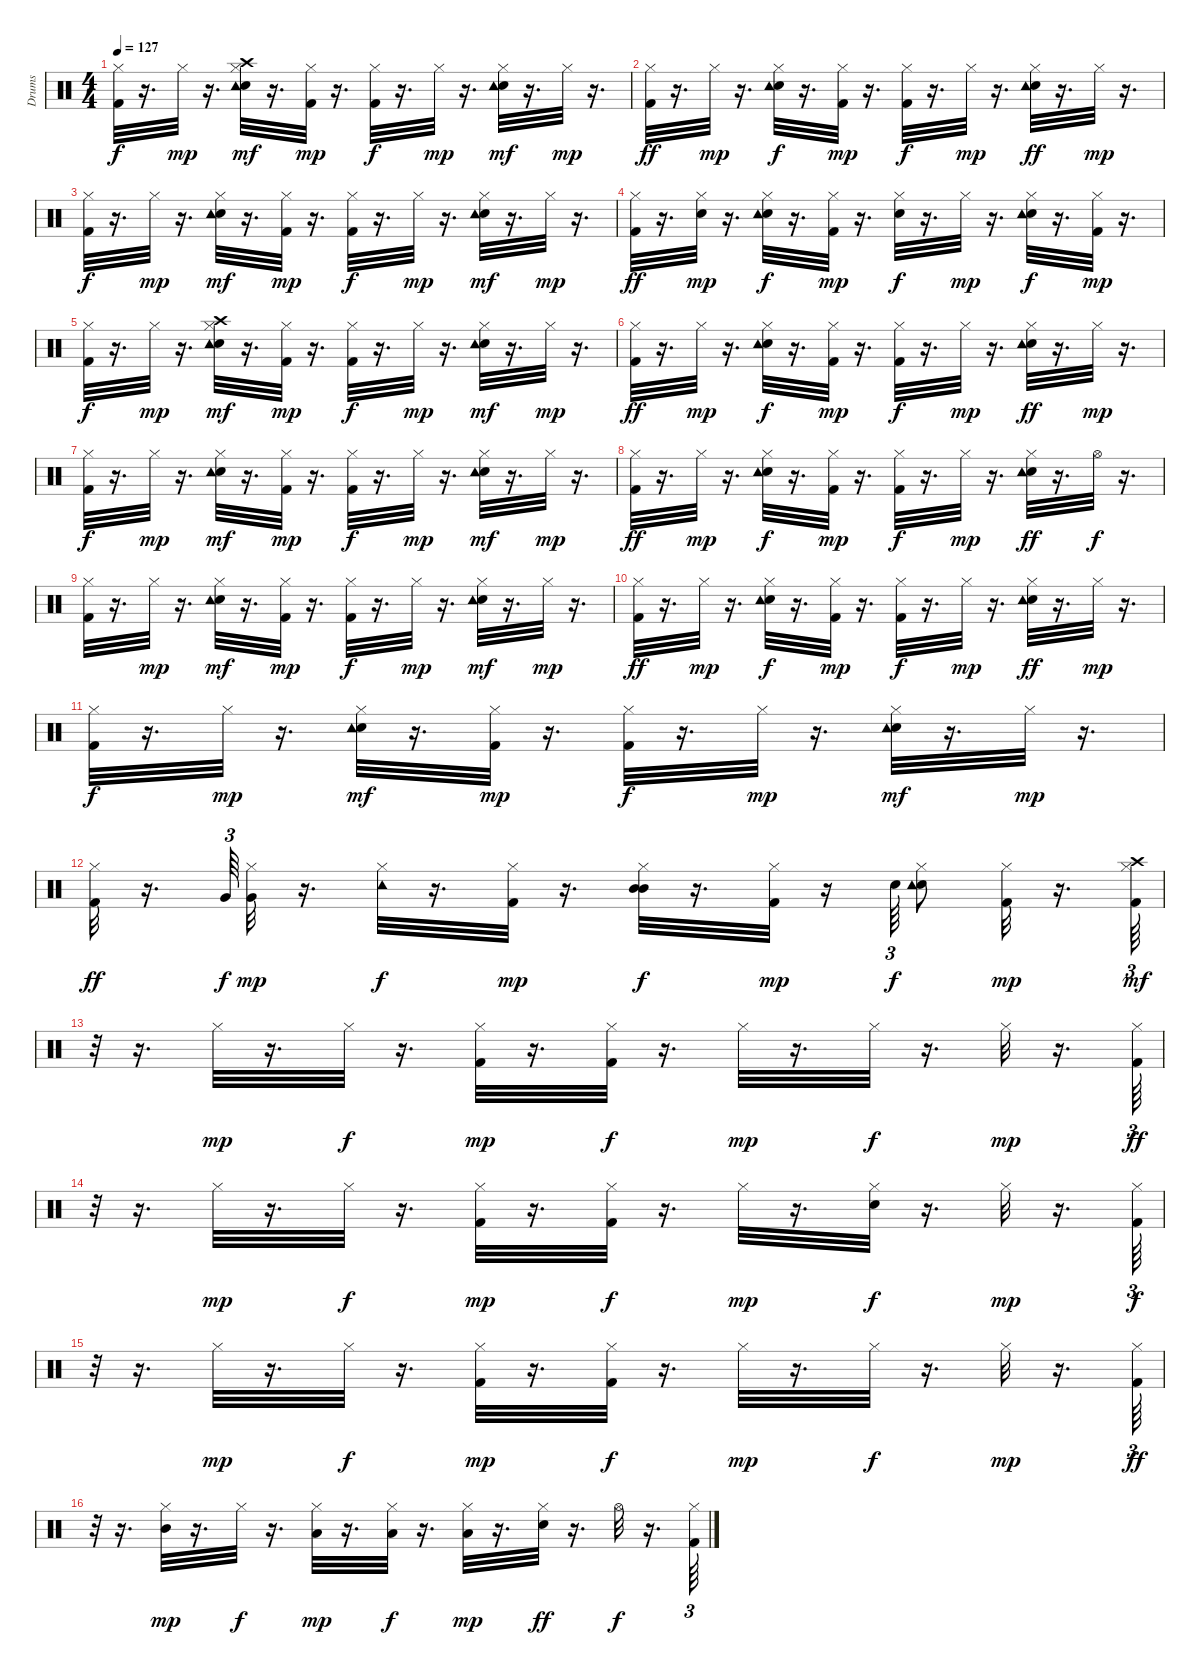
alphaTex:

\track ("Drums               " "Drums     ") {instrument percussion}
\staff {score}
\articulation defaults
\ts (4 4)
\tempo 127
\clef neutral
\ks c
("Kick (hit) 2" "Hi-Hat (closed)").32{dy f} r.16{d} "Hi-Hat (closed)".32{dy mp} r.16{d} ("Snare (hit) 2" "Hi-Hat (closed)" "Crash high (hit)" "Tambourine (hit)").32{dy mf} r.16{d} ("Hi-Hat (closed)" "Kick (hit) 2").32{dy mp} r.16{d} ("Kick (hit) 2" "Hi-Hat (closed)").32{dy f} r.16{d} "Hi-Hat (closed)".32{dy mp} r.16{d} ("Snare (hit) 2" "Hi-Hat (closed)" "Tambourine (hit)").32{dy mf} r.16{d} "Hi-Hat (closed)".32{dy mp} r.16{d} |
("Kick (hit) 2" "Hi-Hat (closed)").32{dy ff} r.16{d} "Hi-Hat (closed)".32{dy mp} r.16{d} ("Snare (hit) 2" "Tambourine (hit)" "Hi-Hat (closed)").32{dy f} r.16{d} ("Kick (hit) 2" "Hi-Hat (closed)").32{dy mp} r.16{d} ("Kick (hit) 2" "Hi-Hat (closed)").32{dy f} r.16{d} "Hi-Hat (closed)".32{dy mp} r.16{d} ("Hi-Hat (closed)" "Snare (hit) 2" "Tambourine (hit)").32{dy ff} r.16{d} "Hi-Hat (closed)".32{dy mp} r.16{d} |
("Kick (hit) 2" "Hi-Hat (closed)").32{dy f} r.16{d} "Hi-Hat (closed)".32{dy mp} r.16{d} ("Snare (hit) 2" "Tambourine (hit)" "Hi-Hat (closed)").32{dy mf} r.16{d} ("Kick (hit) 2" "Hi-Hat (closed)").32{dy mp} r.16{d} ("Kick (hit) 2" "Hi-Hat (closed)").32{dy f} r.16{d} "Hi-Hat (closed)".32{dy mp} r.16{d} ("Snare (hit) 2" "Hi-Hat (closed)" "Tambourine (hit)").32{dy mf} r.16{d} "Hi-Hat (closed)".32{dy mp} r.16{d} |
("Kick (hit) 2" "Hi-Hat (closed)").32{dy ff} r.16{d} ("Hi-Hat (closed)" "Snare (hit) 2").32{dy mp} r.16{d} ("Snare (hit) 2" "Tambourine (hit)" "Hi-Hat (closed)").32{dy f} r.16{d} ("Kick (hit) 2" "Hi-Hat (closed)").32{dy mp} r.16{d} ("Snare (hit) 2" "Hi-Hat (closed)").32{dy f} r.16{d} "Hi-Hat (closed)".32{dy mp} r.16{d} ("Snare (hit) 2" "Tambourine (hit)" "Hi-Hat (closed)").32{dy f} r.16{d} ("Kick (hit) 2" "Hi-Hat (closed)").32{dy mp} r.16{d} |
("Kick (hit) 2" "Hi-Hat (closed)").32{dy f} r.16{d} "Hi-Hat (closed)".32{dy mp} r.16{d} ("Snare (hit) 2" "Crash high (hit)" "Tambourine (hit)" "Hi-Hat (closed)").32{dy mf} r.16{d} ("Kick (hit) 2" "Hi-Hat (closed)").32{dy mp} r.16{d} ("Hi-Hat (closed)" "Kick (hit) 2").32{dy f} r.16{d} "Hi-Hat (closed)".32{dy mp} r.16{d} ("Snare (hit) 2" "Tambourine (hit)" "Hi-Hat (closed)").32{dy mf} r.16{d} "Hi-Hat (closed)".32{dy mp} r.16{d} |
("Kick (hit) 2" "Hi-Hat (closed)").32{dy ff} r.16{d} "Hi-Hat (closed)".32{dy mp} r.16{d} ("Snare (hit) 2" "Tambourine (hit)" "Hi-Hat (closed)").32{dy f} r.16{d} ("Kick (hit) 2" "Hi-Hat (closed)").32{dy mp} r.16{d} ("Kick (hit) 2" "Hi-Hat (closed)").32{dy f} r.16{d} "Hi-Hat (closed)".32{dy mp} r.16{d} ("Snare (hit) 2" "Hi-Hat (closed)" "Tambourine (hit)").32{dy ff} r.16{d} "Hi-Hat (closed)".32{dy mp} r.16{d} |
("Kick (hit) 2" "Hi-Hat (closed)").32{dy f} r.16{d} "Hi-Hat (closed)".32{dy mp} r.16{d} ("Snare (hit) 2" "Hi-Hat (closed)" "Tambourine (hit)").32{dy mf} r.16{d} ("Kick (hit) 2" "Hi-Hat (closed)").32{dy mp} r.16{d} ("Kick (hit) 2" "Hi-Hat (closed)").32{dy f} r.16{d} "Hi-Hat (closed)".32{dy mp} r.16{d} ("Snare (hit) 2" "Tambourine (hit)" "Hi-Hat (closed)").32{dy mf} r.16{d} "Hi-Hat (closed)".32{dy mp} r.16{d} |
("Kick (hit) 2" "Hi-Hat (closed)").32{dy ff} r.16{d} "Hi-Hat (closed)".32{dy mp} r.16{d} ("Hi-Hat (closed)" "Snare (hit) 2" "Tambourine (hit)").32{dy f} r.16{d} ("Kick (hit) 2" "Hi-Hat (closed)").32{dy mp} r.16{d} ("Kick (hit) 2" "Hi-Hat (closed)").32{dy f} r.16{d} "Hi-Hat (closed)".32{dy mp} r.16{d} ("Snare (hit) 2" "Tambourine (hit)" "Hi-Hat (closed)").32{dy ff} r.16{d} "Hi-Hat (open)".32{dy f} r.16{d} |
("Kick (hit) 2" "Hi-Hat (closed)").32 r.16{d} "Hi-Hat (closed)".32{dy mp} r.16{d} ("Snare (hit) 2" "Hi-Hat (closed)" "Tambourine (hit)").32{dy mf} r.16{d} ("Kick (hit) 2" "Hi-Hat (closed)").32{dy mp} r.16{d} ("Kick (hit) 2" "Hi-Hat (closed)").32{dy f} r.16{d} "Hi-Hat (closed)".32{dy mp} r.16{d} ("Snare (hit) 2" "Tambourine (hit)" "Hi-Hat (closed)").32{dy mf} r.16{d} "Hi-Hat (closed)".32{dy mp} r.16{d} |
("Kick (hit) 2" "Hi-Hat (closed)").32{dy ff} r.16{d} "Hi-Hat (closed)".32{dy mp} r.16{d} ("Snare (hit) 2" "Tambourine (hit)" "Hi-Hat (closed)").32{dy f} r.16{d} ("Kick (hit) 2" "Hi-Hat (closed)").32{dy mp} r.16{d} ("Kick (hit) 2" "Hi-Hat (closed)").32{dy f} r.16{d} "Hi-Hat (closed)".32{dy mp} r.16{d} ("Snare (hit) 2" "Tambourine (hit)" "Hi-Hat (closed)").32{dy ff} r.16{d} "Hi-Hat (closed)".32{dy mp} r.16{d} |
("Hi-Hat (closed)" "Kick (hit) 2").32{dy f} r.16{d} "Hi-Hat (closed)".32{dy mp} r.16{d} ("Snare (hit) 2" "Tambourine (hit)" "Hi-Hat (closed)").32{dy mf} r.16{d} ("Kick (hit) 2" "Hi-Hat (closed)").32{dy mp} r.16{d} ("Kick (hit) 2" "Hi-Hat (closed)").32{dy f} r.16{d} "Hi-Hat (closed)".32{dy mp} r.16{d} ("Snare (hit) 2" "Tambourine (hit)" "Hi-Hat (closed)").32{dy mf} r.16{d} "Hi-Hat (closed)".32{dy mp} r.16{d} |
("Kick (hit) 2" "Hi-Hat (closed)").32{dy ff} r.16{d} "Very Low Tom (hit)".64{tu (3 2) dy f} ("Very Low Tom (hit)" "Hi-Hat (closed)").32{dy mp} r.16{d} ("Hi-Hat (closed)" "Tambourine (hit)").32{dy f} r.16{d} ("Hi-Hat (closed)" "Kick (hit) 2").32{dy mp} r.16{d} ("Mid Tom (hit)" "Hi-Hat (closed)" "Mid Tom (hit)").32{dy f} r.16{d} ("Kick (hit) 2" "Hi-Hat (closed)").32{dy mp} r.16 "Snare (hit) 2".64{tu (3 2) dy f} ("Snare (hit) 2" "Hi-Hat (closed)" "Tambourine (hit)").8 ("Kick (hit) 2" "Hi-Hat (closed)").32{dy mp} r.16{d} ("Kick (hit) 2" "Crash high (hit)" "Hi-Hat (closed)").64{tu (3 2) dy mf} |
r.32{tu (3 2)} r.16{d} "Hi-Hat (closed)".32{dy mp} r.16{d} "Hi-Hat (closed)".32{dy f} r.16{d} ("Kick (hit) 2" "Hi-Hat (closed)").32{dy mp} r.16{d} ("Kick (hit) 2" "Hi-Hat (closed)").32{dy f} r.16{d} "Hi-Hat (closed)".32{dy mp} r.16{d} "Hi-Hat (closed)".32{dy f} r.16{d} "Hi-Hat (closed)".32{dy mp} r.16{d} ("Kick (hit) 2" "Hi-Hat (closed)").64{tu (3 2) dy ff} |
r.32{tu (3 2)} r.16{d} "Hi-Hat (closed)".32{dy mp} r.16{d} "Hi-Hat (closed)".32{dy f} r.16{d} ("Kick (hit) 2" "Hi-Hat (closed)").32{dy mp} r.16{d} ("Kick (hit) 2" "Hi-Hat (closed)").32{dy f} r.16{d} "Hi-Hat (closed)".32{dy mp} r.16{d} ("Snare (hit) 2" "Hi-Hat (closed)").32{dy f} r.16{d} "Hi-Hat (closed)".32{dy mp} r.16{d} ("Kick (hit) 2" "Hi-Hat (closed)").64{tu (3 2) dy f} |
r.32{tu (3 2)} r.16{d} "Hi-Hat (closed)".32{dy mp} r.16{d} "Hi-Hat (closed)".32{dy f} r.16{d} ("Kick (hit) 2" "Hi-Hat (closed)").32{dy mp} r.16{d} ("Kick (hit) 2" "Hi-Hat (closed)").32{dy f} r.16{d} "Hi-Hat (closed)".32{dy mp} r.16{d} "Hi-Hat (closed)".32{dy f} r.16{d} "Hi-Hat (closed)".32{dy mp} r.16{d} ("Kick (hit) 2" "Hi-Hat (closed)").64{tu (3 2) dy ff} |
r.32{tu (3 2)} r.16{d} ("Hi-Hat (closed)" "Mid Tom (hit)").32{dy mp} r.16{d} "Hi-Hat (closed)".32{dy f} r.16{d} ("Hi-Hat (closed)" "Low Tom (hit)").32{dy mp} r.16{d} ("Hi-Hat (closed)" "Low Tom (hit)").32{dy f} r.16{d} ("Low Tom (hit)" "Hi-Hat (closed)").32{dy mp} r.16{d} ("Snare (hit) 2" "Hi-Hat (closed)").32{dy ff} r.16{d} "Hi-Hat (open)".32{dy f} r.16{d} ("Kick (hit) 2" "Hi-Hat (closed)").64{tu (3 2)}
